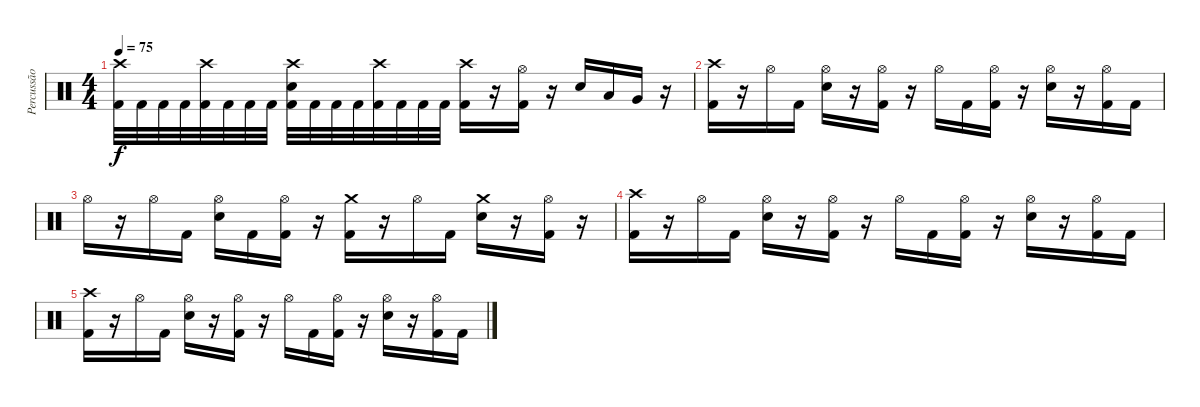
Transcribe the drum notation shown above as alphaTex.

\track ("Percussão" "Percussão") {instrument percussion}
\staff {score}
\articulation defaults
\ts (4 4)
\tempo 75
\clef neutral
\ks c
("Crash high (hit)" "Kick (hit) 2").32{dy f} "Kick (hit) 2".32 "Kick (hit) 2".32 "Kick (hit) 2".32 ("Crash high (hit)" "Kick (hit) 2").32 "Kick (hit) 2".32 "Kick (hit) 2".32 "Kick (hit) 2".32 ("Crash high (hit)" "Electric Snare (hit)" "Kick (hit) 2").32 "Kick (hit) 2".32 "Kick (hit) 2".32 "Kick (hit) 2".32 ("Crash high (hit)" "Kick (hit) 2").32 "Kick (hit) 2".32 "Kick (hit) 2".32 "Kick (hit) 2".32 ("Crash high (hit)" "Kick (hit) 2").16 r.16 ("Hi-Hat (open)" "Kick (hit) 2").16 r.16 "Electric Snare (hit)".16 "Low Tom (hit)".16 "Very Low Tom (hit)".16 r.16 |
("Crash high (hit)" "Kick (hit) 2").16{volume 12} r.16 "Hi-Hat (open)".16 "Kick (hit) 2".16 ("Hi-Hat (open)" "Electric Snare (hit)").16 r.16 ("Hi-Hat (open)" "Kick (hit) 2").16 r.16 "Hi-Hat (open)".16 "Kick (hit) 2".16 ("Hi-Hat (open)" "Kick (hit) 2").16 r.16 ("Hi-Hat (open)" "Electric Snare (hit)").16 r.16 ("Hi-Hat (open)" "Kick (hit) 2").16 "Kick (hit) 2".16 |
"Hi-Hat (open)".16 r.16 "Hi-Hat (open)".16{volume 10} "Kick (hit) 2".16 ("Hi-Hat (open)" "Electric Snare (hit)").16 "Kick (hit) 2".16 ("Hi-Hat (open)" "Kick (hit) 2").16 r.16 ("Crash medium (hit)" "Kick (hit) 2").16 r.16 "Hi-Hat (open)".16 "Kick (hit) 2".16 ("Crash medium (hit)" "Electric Snare (hit)").16 r.16 ("Hi-Hat (open)" "Kick (hit) 2").16 r.16 |
("Crash high (hit)" "Kick (hit) 2").16 r.16{volume 6} "Hi-Hat (open)".16 "Kick (hit) 2".16 ("Hi-Hat (open)" "Electric Snare (hit)").16 r.16 ("Hi-Hat (open)" "Kick (hit) 2").16 r.16 "Hi-Hat (open)".16 "Kick (hit) 2".16 ("Hi-Hat (open)" "Kick (hit) 2").16 r.16 ("Hi-Hat (open)" "Electric Snare (hit)").16 r.16 ("Hi-Hat (open)" "Kick (hit) 2").16 "Kick (hit) 2".16 |
("Crash high (hit)" "Kick (hit) 2").16 r.16{volume 3} "Hi-Hat (open)".16 "Kick (hit) 2".16 ("Hi-Hat (open)" "Electric Snare (hit)").16 r.16 ("Hi-Hat (open)" "Kick (hit) 2").16 r.16 "Hi-Hat (open)".16 "Kick (hit) 2".16 ("Hi-Hat (open)" "Kick (hit) 2").16 r.16 ("Hi-Hat (open)" "Electric Snare (hit)").16 r.16 ("Hi-Hat (open)" "Kick (hit) 2").16 "Kick (hit) 2".16
